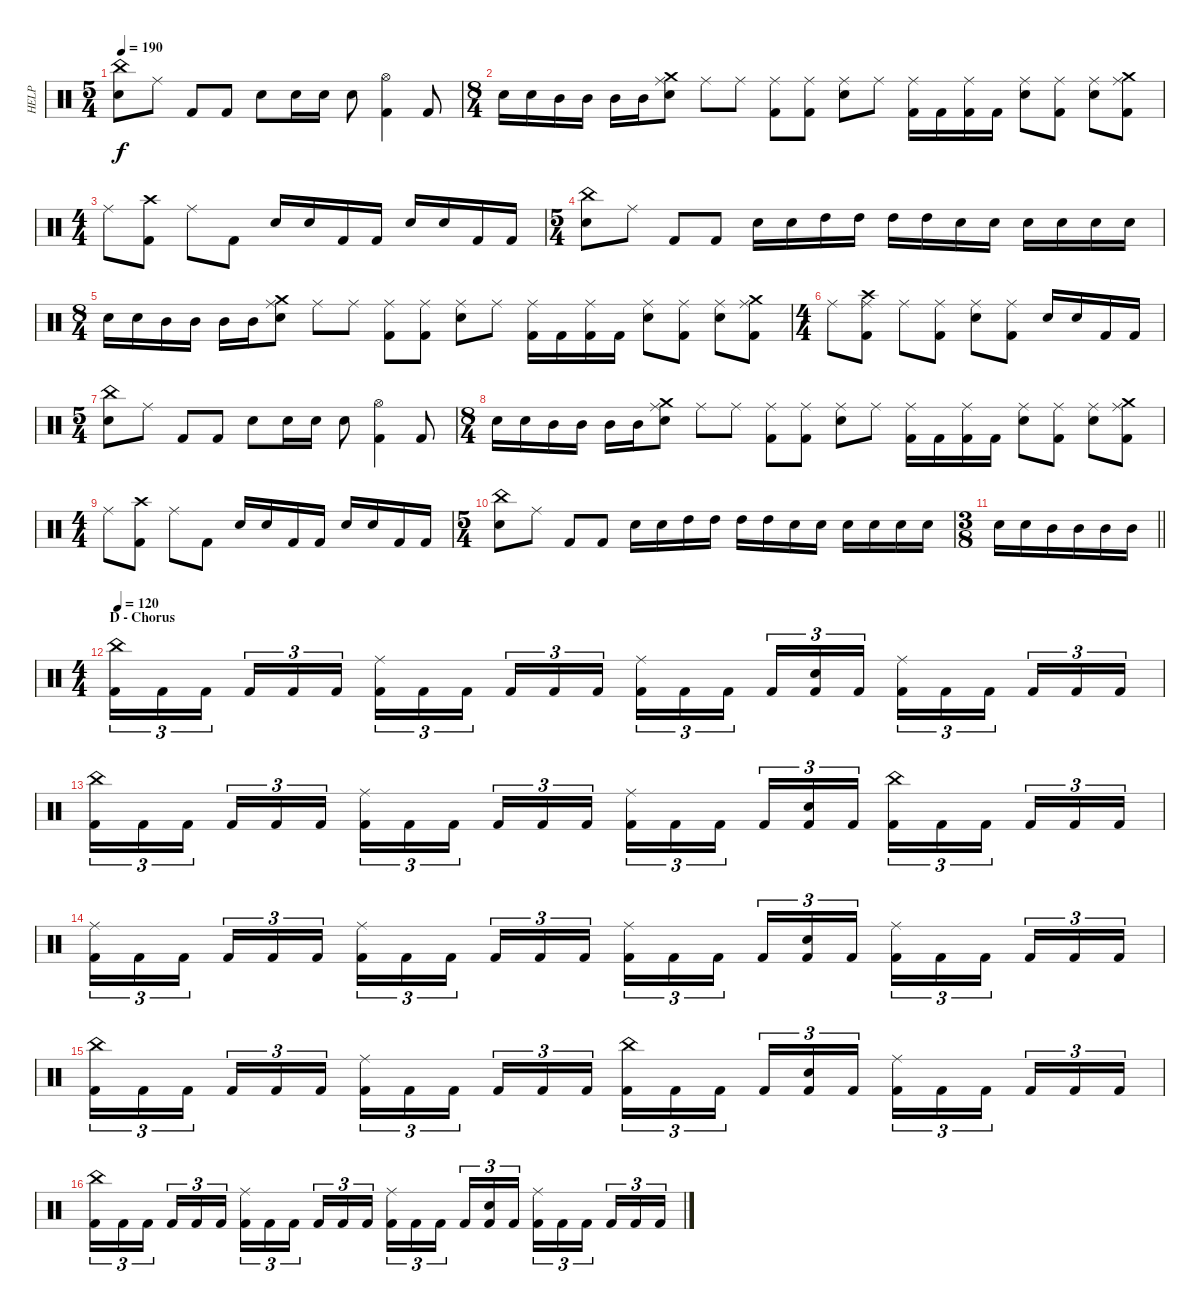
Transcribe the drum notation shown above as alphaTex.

\track ("HELP" "HELP") {instrument percussion}
\staff {score}
\articulation defaults
\ts (5 4)
\tempo 190
\clef neutral
\ks c
("China (hit)" "Snare (hit) 2").8{dy f} "Ride (middle)".8 "Kick (hit) 2".8 "Kick (hit) 2".8 "Snare (hit) 2".8 "Snare (hit) 2".16 "Snare (hit) 2".16 "Snare (hit) 2".8 ("Hi-Hat (open)" "Kick (hit) 2").4 "Kick (hit) 2".8 |
\ts (8 4)
"Snare (hit) 2".16 "Snare (hit) 2".16 "Mid Tom (hit)".16 "Mid Tom (hit)".16 "Mid Tom (hit)".16 "Mid Tom (hit)".16 ("Crash medium (hit)" "Ride (middle)" "Snare (hit) 2").8 "Ride (middle)".8 "Ride (middle)".8 ("Ride (middle)" "Kick (hit) 2").8 ("Ride (middle)" "Kick (hit) 2").8 ("Ride (middle)" "Snare (hit) 2").8 "Ride (middle)".8 ("Ride (middle)" "Kick (hit) 2").16 "Kick (hit) 2".16 ("Ride (middle)" "Kick (hit) 2").16 "Kick (hit) 2".16 ("Snare (hit) 2" "Ride (middle)").8 ("Ride (middle)" "Kick (hit) 2").8 ("Snare (hit) 2" "Ride (middle)").8 ("Crash medium (hit)" "Ride (middle)" "Kick (hit) 2").8 |
\ts (4 4)
"Ride (middle)".8 ("Crash high (hit)" "Kick (hit) 2").8 "Ride (middle)".8 "Kick (hit) 2".8 "Snare (hit) 2".16 "Snare (hit) 2".16 "Kick (hit) 2".16 "Kick (hit) 2".16 "Snare (hit) 2".16 "Snare (hit) 2".16 "Kick (hit) 2".16 "Kick (hit) 2".16 |
\ts (5 4)
("China (hit)" "Snare (hit) 2").8 "Ride (middle)".8 "Kick (hit) 2".8 "Kick (hit) 2".8 "Snare (hit) 2".16 "Snare (hit) 2".16 "High Tom (hit)".16 "High Tom (hit)".16 "High Tom (hit)".16 "High Tom (hit)".16 "Snare (hit) 2".16 "Snare (hit) 2".16 "Snare (hit) 2".16 "Snare (hit) 2".16 "Snare (hit) 2".16 "Snare (hit) 2".16 |
\ts (8 4)
"Snare (hit) 2".16 "Snare (hit) 2".16 "Mid Tom (hit)".16 "Mid Tom (hit)".16 "Mid Tom (hit)".16 "Mid Tom (hit)".16 ("Crash medium (hit)" "Ride (middle)" "Snare (hit) 2").8 "Ride (middle)".8 "Ride (middle)".8 ("Ride (middle)" "Kick (hit) 2").8 ("Ride (middle)" "Kick (hit) 2").8 ("Ride (middle)" "Snare (hit) 2").8 "Ride (middle)".8 ("Ride (middle)" "Kick (hit) 2").16 "Kick (hit) 2".16 ("Ride (middle)" "Kick (hit) 2").16 "Kick (hit) 2".16 ("Snare (hit) 2" "Ride (middle)").8 ("Ride (middle)" "Kick (hit) 2").8 ("Snare (hit) 2" "Ride (middle)").8 ("Crash medium (hit)" "Ride (middle)" "Kick (hit) 2").8 |
\ts (4 4)
"Ride (middle)".8 ("Crash high (hit)" "Ride (middle)" "Kick (hit) 2").8 "Ride (middle)".8 ("Ride (middle)" "Kick (hit) 2").8 ("Ride (middle)" "Snare (hit) 2").8 ("Ride (middle)" "Kick (hit) 2").8 "Snare (hit) 2".16 "Snare (hit) 2".16 "Kick (hit) 2".16 "Kick (hit) 2".16 |
\ts (5 4)
("China (hit)" "Snare (hit) 2").8 "Ride (middle)".8 "Kick (hit) 2".8 "Kick (hit) 2".8 "Snare (hit) 2".8 "Snare (hit) 2".16 "Snare (hit) 2".16 "Snare (hit) 2".8 ("Hi-Hat (open)" "Kick (hit) 2").4 "Kick (hit) 2".8 |
\ts (8 4)
"Snare (hit) 2".16 "Snare (hit) 2".16 "Mid Tom (hit)".16 "Mid Tom (hit)".16 "Mid Tom (hit)".16 "Mid Tom (hit)".16 ("Crash medium (hit)" "Ride (middle)" "Snare (hit) 2").8 "Ride (middle)".8 "Ride (middle)".8 ("Ride (middle)" "Kick (hit) 2").8 ("Ride (middle)" "Kick (hit) 2").8 ("Ride (middle)" "Snare (hit) 2").8 "Ride (middle)".8 ("Ride (middle)" "Kick (hit) 2").16 "Kick (hit) 2".16 ("Ride (middle)" "Kick (hit) 2").16 "Kick (hit) 2".16 ("Snare (hit) 2" "Ride (middle)").8 ("Ride (middle)" "Kick (hit) 2").8 ("Snare (hit) 2" "Ride (middle)").8 ("Crash medium (hit)" "Ride (middle)" "Kick (hit) 2").8 |
\ts (4 4)
"Ride (middle)".8 ("Crash high (hit)" "Kick (hit) 2").8 "Ride (middle)".8 "Kick (hit) 2".8 "Snare (hit) 2".16 "Snare (hit) 2".16 "Kick (hit) 2".16 "Kick (hit) 2".16 "Snare (hit) 2".16 "Snare (hit) 2".16 "Kick (hit) 2".16 "Kick (hit) 2".16 |
\ts (5 4)
("China (hit)" "Snare (hit) 2").8 "Ride (middle)".8 "Kick (hit) 2".8 "Kick (hit) 2".8 "Snare (hit) 2".16 "Snare (hit) 2".16 "High Tom (hit)".16 "High Tom (hit)".16 "High Tom (hit)".16 "High Tom (hit)".16 "Snare (hit) 2".16 "Snare (hit) 2".16 "Snare (hit) 2".16 "Snare (hit) 2".16 "Snare (hit) 2".16 "Snare (hit) 2".16 |
\ts (3 8)
\barLineRight lightlight "Snare (hit) 2".16 "Snare (hit) 2".16 "Mid Tom (hit)".16 "Mid Tom (hit)".16 "Mid Tom (hit)".16 "Mid Tom (hit)".16
|
\ts (4 4)
\section ("" "D - Chorus")
\tempo 120
("China (hit)" "Kick (hit) 2").16{tu (3 2)} "Kick (hit) 2".16{tu (3 2)} "Kick (hit) 2".16{tu (3 2) beam splitsecondary} "Kick (hit) 2".16{tu (3 2)} "Kick (hit) 2".16{tu (3 2)} "Kick (hit) 2".16{tu (3 2)} ("Ride (middle)" "Kick (hit) 2").16{tu (3 2)} "Kick (hit) 2".16{tu (3 2)} "Kick (hit) 2".16{tu (3 2) beam splitsecondary} "Kick (hit) 2".16{tu (3 2)} "Kick (hit) 2".16{tu (3 2)} "Kick (hit) 2".16{tu (3 2)} ("Ride (middle)" "Kick (hit) 2").16{tu (3 2)} "Kick (hit) 2".16{tu (3 2)} "Kick (hit) 2".16{tu (3 2) beam splitsecondary} "Kick (hit) 2".16{tu (3 2)} ("Electric Snare (hit)" "Kick (hit) 2").16{tu (3 2)} "Kick (hit) 2".16{tu (3 2)} ("Ride (middle)" "Kick (hit) 2").16{tu (3 2)} "Kick (hit) 2".16{tu (3 2)} "Kick (hit) 2".16{tu (3 2) beam splitsecondary} "Kick (hit) 2".16{tu (3 2)} "Kick (hit) 2".16{tu (3 2)} "Kick (hit) 2".16{tu (3 2)} |
("China (hit)" "Kick (hit) 2").16{tu (3 2)} "Kick (hit) 2".16{tu (3 2)} "Kick (hit) 2".16{tu (3 2) beam splitsecondary} "Kick (hit) 2".16{tu (3 2)} "Kick (hit) 2".16{tu (3 2)} "Kick (hit) 2".16{tu (3 2)} ("Ride (middle)" "Kick (hit) 2").16{tu (3 2)} "Kick (hit) 2".16{tu (3 2)} "Kick (hit) 2".16{tu (3 2) beam splitsecondary} "Kick (hit) 2".16{tu (3 2)} "Kick (hit) 2".16{tu (3 2)} "Kick (hit) 2".16{tu (3 2)} ("Ride (middle)" "Kick (hit) 2").16{tu (3 2)} "Kick (hit) 2".16{tu (3 2)} "Kick (hit) 2".16{tu (3 2) beam splitsecondary} "Kick (hit) 2".16{tu (3 2)} ("Electric Snare (hit)" "Kick (hit) 2").16{tu (3 2)} "Kick (hit) 2".16{tu (3 2)} ("China (hit)" "Kick (hit) 2").16{tu (3 2)} "Kick (hit) 2".16{tu (3 2)} "Kick (hit) 2".16{tu (3 2) beam splitsecondary} "Kick (hit) 2".16{tu (3 2)} "Kick (hit) 2".16{tu (3 2)} "Kick (hit) 2".16{tu (3 2)} |
("Ride (middle)" "Kick (hit) 2").16{tu (3 2)} "Kick (hit) 2".16{tu (3 2)} "Kick (hit) 2".16{tu (3 2) beam splitsecondary} "Kick (hit) 2".16{tu (3 2)} "Kick (hit) 2".16{tu (3 2)} "Kick (hit) 2".16{tu (3 2)} ("Ride (middle)" "Kick (hit) 2").16{tu (3 2)} "Kick (hit) 2".16{tu (3 2)} "Kick (hit) 2".16{tu (3 2) beam splitsecondary} "Kick (hit) 2".16{tu (3 2)} "Kick (hit) 2".16{tu (3 2)} "Kick (hit) 2".16{tu (3 2)} ("Ride (middle)" "Kick (hit) 2").16{tu (3 2)} "Kick (hit) 2".16{tu (3 2)} "Kick (hit) 2".16{tu (3 2) beam splitsecondary} "Kick (hit) 2".16{tu (3 2)} ("Electric Snare (hit)" "Kick (hit) 2").16{tu (3 2)} "Kick (hit) 2".16{tu (3 2)} ("Ride (middle)" "Kick (hit) 2").16{tu (3 2)} "Kick (hit) 2".16{tu (3 2)} "Kick (hit) 2".16{tu (3 2) beam splitsecondary} "Kick (hit) 2".16{tu (3 2)} "Kick (hit) 2".16{tu (3 2)} "Kick (hit) 2".16{tu (3 2)} |
("China (hit)" "Kick (hit) 2").16{tu (3 2)} "Kick (hit) 2".16{tu (3 2)} "Kick (hit) 2".16{tu (3 2) beam splitsecondary} "Kick (hit) 2".16{tu (3 2)} "Kick (hit) 2".16{tu (3 2)} "Kick (hit) 2".16{tu (3 2)} ("Ride (middle)" "Kick (hit) 2").16{tu (3 2)} "Kick (hit) 2".16{tu (3 2)} "Kick (hit) 2".16{tu (3 2) beam splitsecondary} "Kick (hit) 2".16{tu (3 2)} "Kick (hit) 2".16{tu (3 2)} "Kick (hit) 2".16{tu (3 2)} ("China (hit)" "Kick (hit) 2").16{tu (3 2)} "Kick (hit) 2".16{tu (3 2)} "Kick (hit) 2".16{tu (3 2) beam splitsecondary} "Kick (hit) 2".16{tu (3 2)} ("Electric Snare (hit)" "Kick (hit) 2").16{tu (3 2)} "Kick (hit) 2".16{tu (3 2)} ("Ride (middle)" "Kick (hit) 2").16{tu (3 2)} "Kick (hit) 2".16{tu (3 2)} "Kick (hit) 2".16{tu (3 2) beam splitsecondary} "Kick (hit) 2".16{tu (3 2)} "Kick (hit) 2".16{tu (3 2)} "Kick (hit) 2".16{tu (3 2)} |
("China (hit)" "Kick (hit) 2").16{tu (3 2)} "Kick (hit) 2".16{tu (3 2)} "Kick (hit) 2".16{tu (3 2) beam splitsecondary} "Kick (hit) 2".16{tu (3 2)} "Kick (hit) 2".16{tu (3 2)} "Kick (hit) 2".16{tu (3 2)} ("Ride (middle)" "Kick (hit) 2").16{tu (3 2)} "Kick (hit) 2".16{tu (3 2)} "Kick (hit) 2".16{tu (3 2) beam splitsecondary} "Kick (hit) 2".16{tu (3 2)} "Kick (hit) 2".16{tu (3 2)} "Kick (hit) 2".16{tu (3 2)} ("Ride (middle)" "Kick (hit) 2").16{tu (3 2)} "Kick (hit) 2".16{tu (3 2)} "Kick (hit) 2".16{tu (3 2) beam splitsecondary} "Kick (hit) 2".16{tu (3 2)} ("Electric Snare (hit)" "Kick (hit) 2").16{tu (3 2)} "Kick (hit) 2".16{tu (3 2)} ("Ride (middle)" "Kick (hit) 2").16{tu (3 2)} "Kick (hit) 2".16{tu (3 2)} "Kick (hit) 2".16{tu (3 2) beam splitsecondary} "Kick (hit) 2".16{tu (3 2)} "Kick (hit) 2".16{tu (3 2)} "Kick (hit) 2".16{tu (3 2)}
